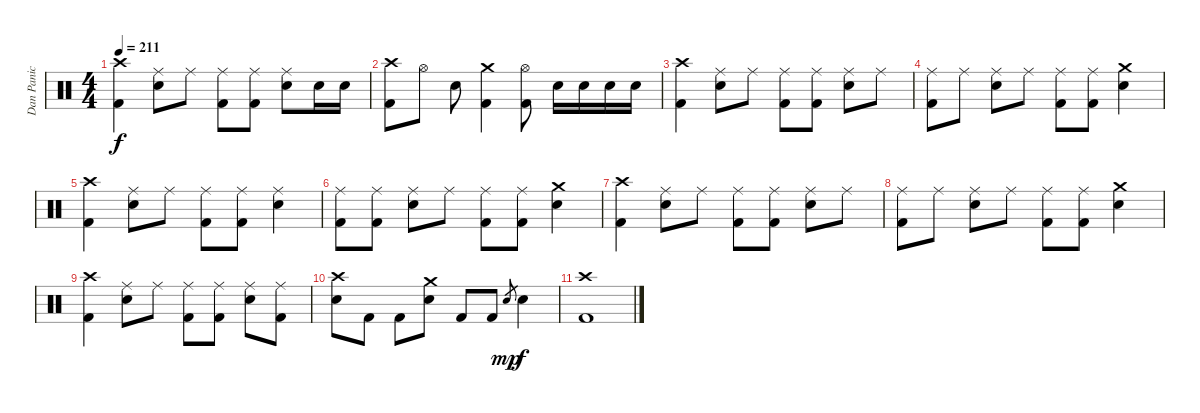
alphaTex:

\track ("Dan Panic" "Dan Panic") {instrument percussion}
\staff {score}
\articulation defaults
\ts (4 4)
\tempo 211
\clef neutral
\ks c
("Crash high (hit)" "Kick (hit) 2").4{dy f} ("Ride (middle)" "Electric Snare (hit)").8 "Ride (middle)".8 ("Ride (middle)" "Kick (hit) 2").8 ("Ride (middle)" "Kick (hit) 2").8 ("Ride (middle)" "Electric Snare (hit)").8 "Electric Snare (hit)".16 "Electric Snare (hit)".16 |
("Crash high (hit)" "Kick (hit) 2").8 "Hi-Hat (open)".8 "Electric Snare (hit)".8 ("Crash medium (hit)" "Kick (hit) 2").4 ("Hi-Hat (open)" "Kick (hit) 2").8 "Electric Snare (hit)".16 "Electric Snare (hit)".16 "Electric Snare (hit)".16 "Electric Snare (hit)".16 |
("Crash high (hit)" "Kick (hit) 2").4 ("Ride (middle)" "Electric Snare (hit)").8 "Ride (middle)".8 ("Ride (middle)" "Kick (hit) 2").8 ("Ride (middle)" "Kick (hit) 2").8 ("Ride (middle)" "Electric Snare (hit)").8 "Ride (middle)".8 |
("Ride (middle)" "Kick (hit) 2").8 "Ride (middle)".8 ("Ride (middle)" "Electric Snare (hit)").8 "Ride (middle)".8 ("Ride (middle)" "Kick (hit) 2").8 ("Ride (middle)" "Kick (hit) 2").8 ("Crash medium (hit)" "Electric Snare (hit)").4 |
("Crash high (hit)" "Kick (hit) 2").4 ("Ride (middle)" "Electric Snare (hit)").8 "Ride (middle)".8 ("Ride (middle)" "Kick (hit) 2").8 ("Ride (middle)" "Kick (hit) 2").8 ("Ride (middle)" "Electric Snare (hit)").4 |
("Ride (middle)" "Kick (hit) 2").8 ("Ride (middle)" "Kick (hit) 2").8 ("Ride (middle)" "Electric Snare (hit)").8 "Ride (middle)".8 ("Ride (middle)" "Kick (hit) 2").8 ("Ride (middle)" "Kick (hit) 2").8 ("Crash medium (hit)" "Electric Snare (hit)").4 |
("Crash high (hit)" "Kick (hit) 2").4 ("Ride (middle)" "Electric Snare (hit)").8 "Ride (middle)".8 ("Ride (middle)" "Kick (hit) 2").8 ("Ride (middle)" "Kick (hit) 2").8 ("Ride (middle)" "Electric Snare (hit)").8 "Ride (middle)".8 |
("Ride (middle)" "Kick (hit) 2").8 "Ride (middle)".8 ("Ride (middle)" "Electric Snare (hit)").8 "Ride (middle)".8 ("Ride (middle)" "Kick (hit) 2").8 ("Ride (middle)" "Kick (hit) 2").8 ("Crash medium (hit)" "Electric Snare (hit)").4 |
("Crash high (hit)" "Kick (hit) 2").4 ("Ride (middle)" "Electric Snare (hit)").8 "Ride (middle)".8 ("Ride (middle)" "Kick (hit) 2").8 ("Ride (middle)" "Kick (hit) 2").8 ("Ride (middle)" "Electric Snare (hit)").8 ("Ride (middle)" "Kick (hit) 2").8 |
("Crash high (hit)" "Electric Snare (hit)").8 "Kick (hit) 2".8 "Kick (hit) 2".8 ("Crash medium (hit)" "Electric Snare (hit)").8 "Kick (hit) 2".8 "Kick (hit) 2".8 "Electric Snare (hit)".8{gr dy mp} "Electric Snare (hit)".4{dy f} |
("Crash high (hit)" "Kick (hit) 2").1
